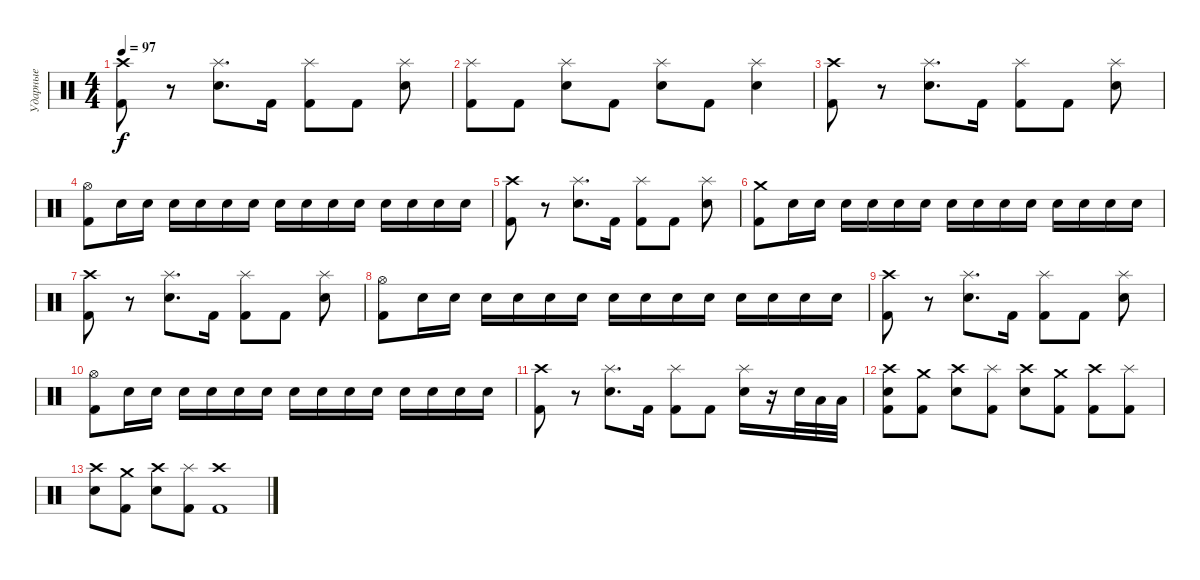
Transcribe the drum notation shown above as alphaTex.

\track ("Ударные" "Ударные") {instrument percussion}
\staff {score}
\articulation defaults
\ts (4 4)
\tempo 97
\clef neutral
\ks c
("Kick (hit) 2" "Crash high (hit)").8{dy f} r.8 ("Electric Snare (hit)" "Splash (hit)").8{d} "Kick (hit) 2".16 ("Kick (hit) 2" "Splash (hit)").8 "Kick (hit) 2".8 ("Electric Snare (hit)" "Splash (hit)").8 |
("Kick (hit) 2" "Splash (hit)").8 "Kick (hit) 2".8 ("Electric Snare (hit)" "Splash (hit)").8 "Kick (hit) 2".8 ("Electric Snare (hit)" "Splash (hit)").8 "Kick (hit) 2".8 ("Electric Snare (hit)" "Splash (hit)").4 |
("Kick (hit) 2" "Crash high (hit)").8 r.8 ("Electric Snare (hit)" "Splash (hit)").8{d} "Kick (hit) 2".16 ("Kick (hit) 2" "Splash (hit)").8 "Kick (hit) 2".8 ("Electric Snare (hit)" "Splash (hit)").8 |
("Kick (hit) 2" "Hi-Hat (open)").8 "Electric Snare (hit)".16 "Electric Snare (hit)".16 "Electric Snare (hit)".16 "Electric Snare (hit)".16 "Electric Snare (hit)".16 "Electric Snare (hit)".16 "Electric Snare (hit)".16 "Electric Snare (hit)".16 "Electric Snare (hit)".16 "Electric Snare (hit)".16 "Electric Snare (hit)".16 "Electric Snare (hit)".16 "Electric Snare (hit)".16 "Electric Snare (hit)".16 |
("Kick (hit) 2" "Crash high (hit)").8 r.8 ("Electric Snare (hit)" "Splash (hit)").8{d} "Kick (hit) 2".16 ("Kick (hit) 2" "Splash (hit)").8 "Kick (hit) 2".8 ("Electric Snare (hit)" "Splash (hit)").8 |
("Kick (hit) 2" "Crash medium (hit)").8 "Electric Snare (hit)".16 "Electric Snare (hit)".16 "Electric Snare (hit)".16 "Electric Snare (hit)".16 "Electric Snare (hit)".16 "Electric Snare (hit)".16 "Electric Snare (hit)".16 "Electric Snare (hit)".16 "Electric Snare (hit)".16 "Electric Snare (hit)".16 "Electric Snare (hit)".16 "Electric Snare (hit)".16 "Electric Snare (hit)".16 "Electric Snare (hit)".16 |
("Kick (hit) 2" "Crash high (hit)").8 r.8 ("Electric Snare (hit)" "Splash (hit)").8{d} "Kick (hit) 2".16 ("Kick (hit) 2" "Splash (hit)").8 "Kick (hit) 2".8 ("Electric Snare (hit)" "Splash (hit)").8 |
("Kick (hit) 2" "Hi-Hat (open)").8 "Electric Snare (hit)".16 "Electric Snare (hit)".16 "Electric Snare (hit)".16 "Electric Snare (hit)".16 "Electric Snare (hit)".16 "Electric Snare (hit)".16 "Electric Snare (hit)".16 "Electric Snare (hit)".16 "Electric Snare (hit)".16 "Electric Snare (hit)".16 "Electric Snare (hit)".16 "Electric Snare (hit)".16 "Electric Snare (hit)".16 "Electric Snare (hit)".16 |
("Kick (hit) 2" "Crash high (hit)").8 r.8 ("Electric Snare (hit)" "Splash (hit)").8{d} "Kick (hit) 2".16 ("Kick (hit) 2" "Splash (hit)").8 "Kick (hit) 2".8 ("Electric Snare (hit)" "Splash (hit)").8 |
("Kick (hit) 2" "Hi-Hat (open)").8 "Electric Snare (hit)".16 "Electric Snare (hit)".16 "Electric Snare (hit)".16 "Electric Snare (hit)".16 "Electric Snare (hit)".16 "Electric Snare (hit)".16 "Electric Snare (hit)".16 "Electric Snare (hit)".16 "Electric Snare (hit)".16 "Electric Snare (hit)".16 "Electric Snare (hit)".16 "Electric Snare (hit)".16 "Electric Snare (hit)".16 "Electric Snare (hit)".16 |
("Kick (hit) 2" "Crash high (hit)").8 r.8 ("Electric Snare (hit)" "Splash (hit)").8{d} "Kick (hit) 2".16 ("Kick (hit) 2" "Splash (hit)").8 "Kick (hit) 2".8 ("Electric Snare (hit)" "Splash (hit)").16 r.16 "Electric Snare (hit)".32 "Low Tom (hit)".32 "Low Tom (hit)".32 |
("Kick (hit) 2" "Electric Snare (hit)" "Crash high (hit)").8 ("Kick (hit) 2" "Crash medium (hit)").8 ("Electric Snare (hit)" "Crash high (hit)").8 ("Kick (hit) 2" "Splash (hit)").8 ("Electric Snare (hit)" "Crash high (hit)").8 ("Kick (hit) 2" "Crash medium (hit)").8 ("Kick (hit) 2" "Crash high (hit)").8 ("Kick (hit) 2" "Splash (hit)").8 |
("Electric Snare (hit)" "Crash high (hit)").8 ("Kick (hit) 2" "Crash medium (hit)").8 ("Electric Snare (hit)" "Crash high (hit)").8 ("Kick (hit) 2" "Splash (hit)").8 ("Kick (hit) 2" "Crash high (hit)").1
